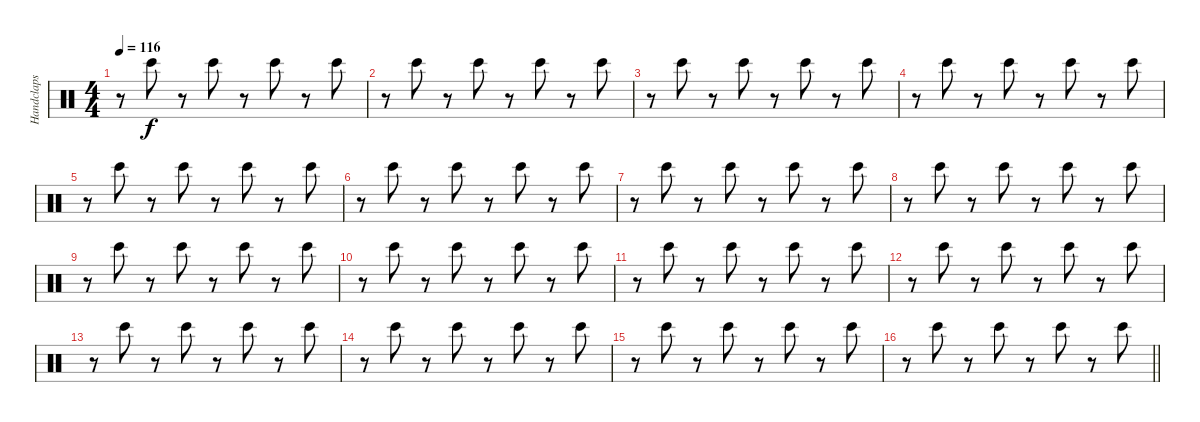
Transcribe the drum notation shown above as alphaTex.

\track ("Handclaps" "Handclaps") {instrument percussion}
\staff {score}
\articulation defaults
\ts (4 4)
\tempo 116
\clef neutral
\ks c
r.8{dy f} "Bongo High (hit)".8 r.8 "Bongo High (hit)".8 r.8 "Bongo High (hit)".8 r.8 "Bongo High (hit)".8 |
r.8 "Bongo High (hit)".8 r.8 "Bongo High (hit)".8 r.8 "Bongo High (hit)".8 r.8 "Bongo High (hit)".8 |
r.8 "Bongo High (hit)".8 r.8 "Bongo High (hit)".8 r.8 "Bongo High (hit)".8 r.8 "Bongo High (hit)".8 |
r.8 "Bongo High (hit)".8 r.8 "Bongo High (hit)".8 r.8 "Bongo High (hit)".8 r.8 "Bongo High (hit)".8 |
r.8 "Bongo High (hit)".8 r.8 "Bongo High (hit)".8 r.8 "Bongo High (hit)".8 r.8 "Bongo High (hit)".8 |
r.8 "Bongo High (hit)".8 r.8 "Bongo High (hit)".8 r.8 "Bongo High (hit)".8 r.8 "Bongo High (hit)".8 |
r.8 "Bongo High (hit)".8 r.8 "Bongo High (hit)".8 r.8 "Bongo High (hit)".8 r.8 "Bongo High (hit)".8 |
r.8 "Bongo High (hit)".8 r.8 "Bongo High (hit)".8 r.8 "Bongo High (hit)".8 r.8 "Bongo High (hit)".8 |
r.8 "Bongo High (hit)".8 r.8 "Bongo High (hit)".8 r.8 "Bongo High (hit)".8 r.8 "Bongo High (hit)".8 |
r.8 "Bongo High (hit)".8 r.8 "Bongo High (hit)".8 r.8 "Bongo High (hit)".8 r.8 "Bongo High (hit)".8 |
r.8 "Bongo High (hit)".8 r.8 "Bongo High (hit)".8 r.8 "Bongo High (hit)".8 r.8 "Bongo High (hit)".8 |
r.8 "Bongo High (hit)".8 r.8 "Bongo High (hit)".8 r.8 "Bongo High (hit)".8 r.8 "Bongo High (hit)".8 |
r.8 "Bongo High (hit)".8 r.8 "Bongo High (hit)".8 r.8 "Bongo High (hit)".8 r.8 "Bongo High (hit)".8 |
r.8 "Bongo High (hit)".8 r.8 "Bongo High (hit)".8 r.8 "Bongo High (hit)".8 r.8 "Bongo High (hit)".8 |
r.8 "Bongo High (hit)".8 r.8 "Bongo High (hit)".8 r.8 "Bongo High (hit)".8 r.8 "Bongo High (hit)".8 |
\barLineRight lightlight
r.8 "Bongo High (hit)".8 r.8 "Bongo High (hit)".8 r.8 "Bongo High (hit)".8 r.8 "Bongo High (hit)".8
